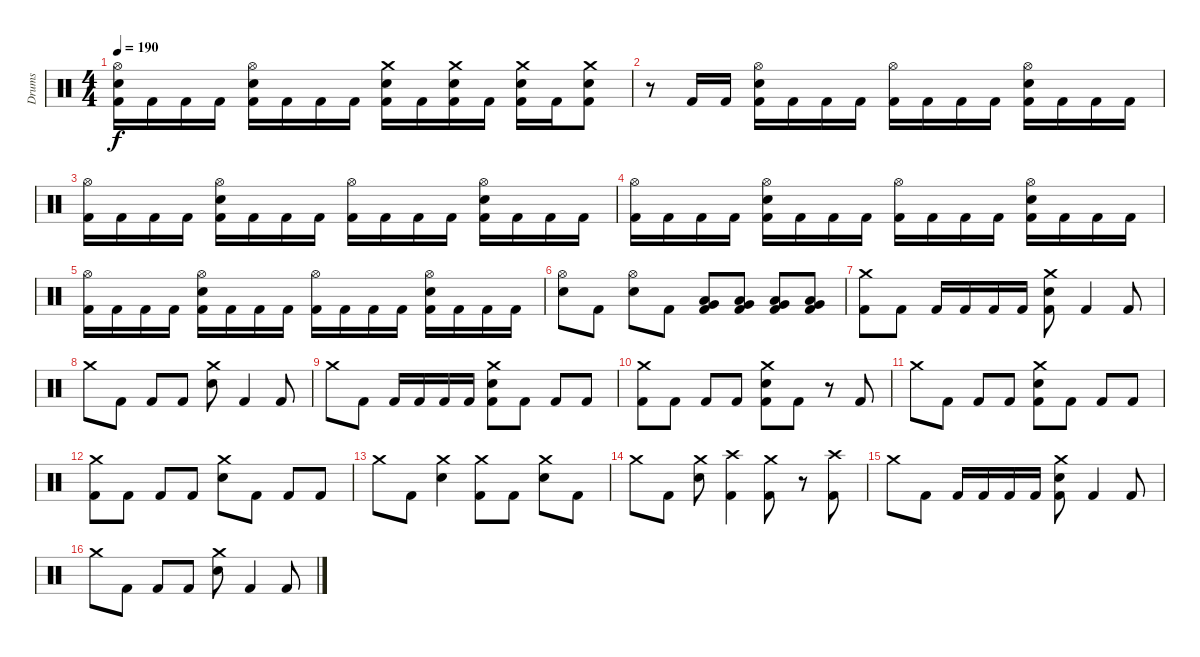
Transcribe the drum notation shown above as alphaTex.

\track ("Drums" "Drums") {instrument percussion}
\staff {score}
\articulation defaults
\ts (4 4)
\tempo 190
\clef neutral
\ks c
("Hi-Hat (open)" "Snare (hit) 2" "Kick (hit) 2").16{dy f} "Kick (hit) 2".16 "Kick (hit) 2".16 "Kick (hit) 2".16 ("Hi-Hat (open)" "Snare (hit) 2" "Kick (hit) 2").16 "Kick (hit) 2".16 "Kick (hit) 2".16 "Kick (hit) 2".16 ("Crash medium (hit)" "Snare (hit) 2" "Kick (hit) 2").16 "Kick (hit) 2".16 ("Crash medium (hit)" "Snare (hit) 2" "Kick (hit) 2").16 "Kick (hit) 2".16 ("Crash medium (hit)" "Snare (hit) 2" "Kick (hit) 2").16 "Kick (hit) 2".16 ("Crash medium (hit)" "Snare (hit) 2" "Kick (hit) 2").8 |
r.8 "Kick (hit) 2".16 "Kick (hit) 2".16 ("Hi-Hat (open)" "Snare (hit) 2" "Kick (hit) 2").16 "Kick (hit) 2".16 "Kick (hit) 2".16 "Kick (hit) 2".16 ("Hi-Hat (open)" "Kick (hit) 2").16 "Kick (hit) 2".16 "Kick (hit) 2".16 "Kick (hit) 2".16 ("Hi-Hat (open)" "Snare (hit) 2" "Kick (hit) 2").16 "Kick (hit) 2".16 "Kick (hit) 2".16 "Kick (hit) 2".16 |
("Hi-Hat (open)" "Kick (hit) 2").16 "Kick (hit) 2".16 "Kick (hit) 2".16 "Kick (hit) 2".16 ("Hi-Hat (open)" "Snare (hit) 2" "Kick (hit) 2").16 "Kick (hit) 2".16 "Kick (hit) 2".16 "Kick (hit) 2".16 ("Hi-Hat (open)" "Kick (hit) 2").16 "Kick (hit) 2".16 "Kick (hit) 2".16 "Kick (hit) 2".16 ("Hi-Hat (open)" "Snare (hit) 2" "Kick (hit) 2").16 "Kick (hit) 2".16 "Kick (hit) 2".16 "Kick (hit) 2".16 |
("Hi-Hat (open)" "Kick (hit) 2").16 "Kick (hit) 2".16 "Kick (hit) 2".16 "Kick (hit) 2".16 ("Hi-Hat (open)" "Snare (hit) 2" "Kick (hit) 2").16 "Kick (hit) 2".16 "Kick (hit) 2".16 "Kick (hit) 2".16 ("Hi-Hat (open)" "Kick (hit) 2").16 "Kick (hit) 2".16 "Kick (hit) 2".16 "Kick (hit) 2".16 ("Hi-Hat (open)" "Snare (hit) 2" "Kick (hit) 2").16 "Kick (hit) 2".16 "Kick (hit) 2".16 "Kick (hit) 2".16 |
("Hi-Hat (open)" "Kick (hit) 2").16 "Kick (hit) 2".16 "Kick (hit) 2".16 "Kick (hit) 2".16 ("Hi-Hat (open)" "Snare (hit) 2" "Kick (hit) 2").16 "Kick (hit) 2".16 "Kick (hit) 2".16 "Kick (hit) 2".16 ("Hi-Hat (open)" "Kick (hit) 2").16 "Kick (hit) 2".16 "Kick (hit) 2".16 "Kick (hit) 2".16 ("Hi-Hat (open)" "Snare (hit) 2" "Kick (hit) 2").16 "Kick (hit) 2".16 "Kick (hit) 2".16 "Kick (hit) 2".16 |
("Hi-Hat (open)" "Snare (hit) 2").8 "Kick (hit) 2".8 ("Hi-Hat (open)" "Snare (hit) 2").8 "Kick (hit) 2".8 ("Low Floor Tom (hit)" "Very Low Tom (hit)" "Kick (hit) 2").8 ("Low Floor Tom (hit)" "Very Low Tom (hit)" "Kick (hit) 2").8 ("Low Floor Tom (hit)" "Very Low Tom (hit)" "Kick (hit) 2").8 ("Low Floor Tom (hit)" "Very Low Tom (hit)" "Kick (hit) 2").8 |
("Crash medium (hit)" "Kick (hit) 2").8 "Kick (hit) 2".8 "Kick (hit) 2".16 "Kick (hit) 2".16 "Kick (hit) 2".16 "Kick (hit) 2".16 ("Crash medium (hit)" "Snare (hit) 2" "Kick (hit) 2").8 "Kick (hit) 2".4 "Kick (hit) 2".8 |
"Crash medium (hit)".8 "Kick (hit) 2".8 "Kick (hit) 2".8 "Kick (hit) 2".8 ("Crash medium (hit)" "Snare (hit) 2").8 "Kick (hit) 2".4 "Kick (hit) 2".8 |
"Crash medium (hit)".8 "Kick (hit) 2".8 "Kick (hit) 2".16 "Kick (hit) 2".16 "Kick (hit) 2".16 "Kick (hit) 2".16 ("Crash medium (hit)" "Snare (hit) 2" "Kick (hit) 2").8 "Kick (hit) 2".8 "Kick (hit) 2".8 "Kick (hit) 2".8 |
("Crash medium (hit)" "Kick (hit) 2").8 "Kick (hit) 2".8 "Kick (hit) 2".8 "Kick (hit) 2".8 ("Crash medium (hit)" "Snare (hit) 2" "Kick (hit) 2").8 "Kick (hit) 2".8 r.8 "Kick (hit) 2".8 |
"Crash medium (hit)".8 "Kick (hit) 2".8 "Kick (hit) 2".8 "Kick (hit) 2".8 ("Crash medium (hit)" "Snare (hit) 2" "Kick (hit) 2").8 "Kick (hit) 2".8 "Kick (hit) 2".8 "Kick (hit) 2".8 |
("Crash medium (hit)" "Kick (hit) 2").8 "Kick (hit) 2".8 "Kick (hit) 2".8 "Kick (hit) 2".8 ("Crash medium (hit)" "Snare (hit) 2").8 "Kick (hit) 2".8 "Kick (hit) 2".8 "Kick (hit) 2".8 |
"Crash medium (hit)".8 "Kick (hit) 2".8 ("Crash medium (hit)" "Snare (hit) 2").4 ("Crash medium (hit)" "Kick (hit) 2").8 "Kick (hit) 2".8 ("Crash medium (hit)" "Snare (hit) 2").8 "Kick (hit) 2".8 |
"Crash medium (hit)".8 "Kick (hit) 2".8 ("Crash medium (hit)" "Snare (hit) 2").8 ("Crash high (hit)" "Kick (hit) 2").4 ("Crash medium (hit)" "Kick (hit) 2").8 r.8 ("Crash high (hit)" "Kick (hit) 2").8 |
"Crash medium (hit)".8 "Kick (hit) 2".8 "Kick (hit) 2".16 "Kick (hit) 2".16 "Kick (hit) 2".16 "Kick (hit) 2".16 ("Crash medium (hit)" "Snare (hit) 2" "Kick (hit) 2").8 "Kick (hit) 2".4 "Kick (hit) 2".8 |
"Crash medium (hit)".8 "Kick (hit) 2".8 "Kick (hit) 2".8 "Kick (hit) 2".8 ("Crash medium (hit)" "Snare (hit) 2").8 "Kick (hit) 2".4 "Kick (hit) 2".8
